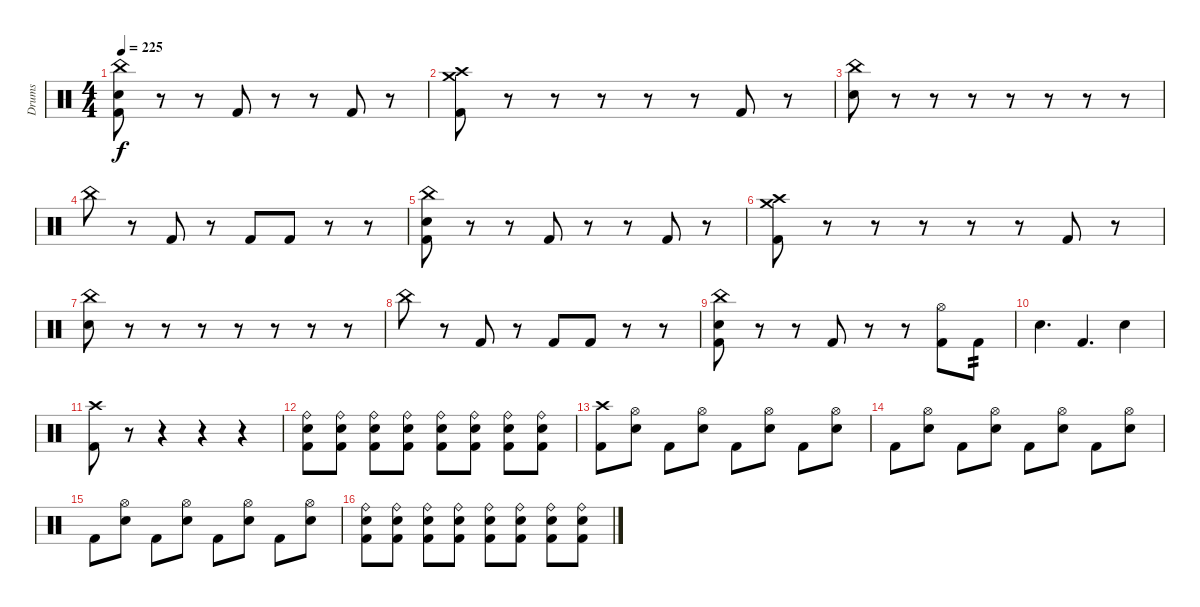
\track ("Drums" "Drums") {instrument percussion}
\staff {score}
\articulation defaults
\ts (4 4)
\tempo 225
\clef neutral
\ks c
("China (hit)" "Electric Snare (hit)" "Kick (hit) 2").8{dy f} r.8 r.8 "Kick (hit) 2".8 r.8 r.8 "Kick (hit) 2".8 r.8 |
("Crash medium (hit)" "Crash high (hit)" "Kick (hit) 2").8 r.8 r.8 r.8 r.8 r.8 "Kick (hit) 2".8 r.8 |
("China (hit)" "Electric Snare (hit)").8 r.8 r.8 r.8 r.8 r.8 r.8 r.8 |
"China (hit)".8 r.8 "Kick (hit) 2".8 r.8 "Kick (hit) 2".8 "Kick (hit) 2".8 r.8 r.8 |
("China (hit)" "Electric Snare (hit)" "Kick (hit) 2").8 r.8 r.8 "Kick (hit) 2".8 r.8 r.8 "Kick (hit) 2".8 r.8 |
("Crash medium (hit)" "Crash high (hit)" "Kick (hit) 2").8 r.8 r.8 r.8 r.8 r.8 "Kick (hit) 2".8 r.8 |
("China (hit)" "Electric Snare (hit)").8 r.8 r.8 r.8 r.8 r.8 r.8 r.8 |
"China (hit)".8 r.8 "Kick (hit) 2".8 r.8 "Kick (hit) 2".8 "Kick (hit) 2".8 r.8 r.8 |
("China (hit)" "Electric Snare (hit)" "Kick (hit) 2").8 r.8 r.8 "Kick (hit) 2".8 r.8 r.8 ("Hi-Hat (open)" "Kick (hit) 2").8 "Kick (hit) 2".8{tp 2} |
"Electric Snare (hit)".4{d} "Kick (hit) 2".4{d} "Electric Snare (hit)".4 |
("Crash high (hit)" "Kick (hit) 2").8 r.8{volume 0} r.4 r.4 r.4 |
("Ride (bell)" "Electric Snare (hit)" "Kick (hit) 2").8{volume 13} ("Ride (bell)" "Electric Snare (hit)" "Kick (hit) 2").8 ("Ride (bell)" "Electric Snare (hit)" "Kick (hit) 2").8 ("Ride (bell)" "Electric Snare (hit)" "Kick (hit) 2").8 ("Ride (bell)" "Electric Snare (hit)" "Kick (hit) 2").8 ("Ride (bell)" "Electric Snare (hit)" "Kick (hit) 2").8 ("Ride (bell)" "Electric Snare (hit)" "Kick (hit) 2").8 ("Ride (bell)" "Electric Snare (hit)" "Kick (hit) 2").8 |
("Crash high (hit)" "Kick (hit) 2").8 ("Hi-Hat (open)" "Electric Snare (hit)").8 "Kick (hit) 2".8 ("Hi-Hat (open)" "Electric Snare (hit)").8 "Kick (hit) 2".8 ("Hi-Hat (open)" "Electric Snare (hit)").8 "Kick (hit) 2".8 ("Hi-Hat (open)" "Electric Snare (hit)").8 |
"Kick (hit) 2".8 ("Hi-Hat (open)" "Electric Snare (hit)").8 "Kick (hit) 2".8 ("Hi-Hat (open)" "Electric Snare (hit)").8 "Kick (hit) 2".8 ("Hi-Hat (open)" "Electric Snare (hit)").8 "Kick (hit) 2".8 ("Hi-Hat (open)" "Electric Snare (hit)").8 |
"Kick (hit) 2".8 ("Hi-Hat (open)" "Electric Snare (hit)").8 "Kick (hit) 2".8 ("Hi-Hat (open)" "Electric Snare (hit)").8 "Kick (hit) 2".8 ("Hi-Hat (open)" "Electric Snare (hit)").8 "Kick (hit) 2".8 ("Hi-Hat (open)" "Electric Snare (hit)").8 |
("Ride (bell)" "Electric Snare (hit)" "Kick (hit) 2").8 ("Ride (bell)" "Electric Snare (hit)" "Kick (hit) 2").8 ("Ride (bell)" "Electric Snare (hit)" "Kick (hit) 2").8 ("Ride (bell)" "Electric Snare (hit)" "Kick (hit) 2").8 ("Ride (bell)" "Electric Snare (hit)" "Kick (hit) 2").8 ("Ride (bell)" "Electric Snare (hit)" "Kick (hit) 2").8 ("Ride (bell)" "Electric Snare (hit)" "Kick (hit) 2").8 ("Ride (bell)" "Electric Snare (hit)" "Kick (hit) 2").8
